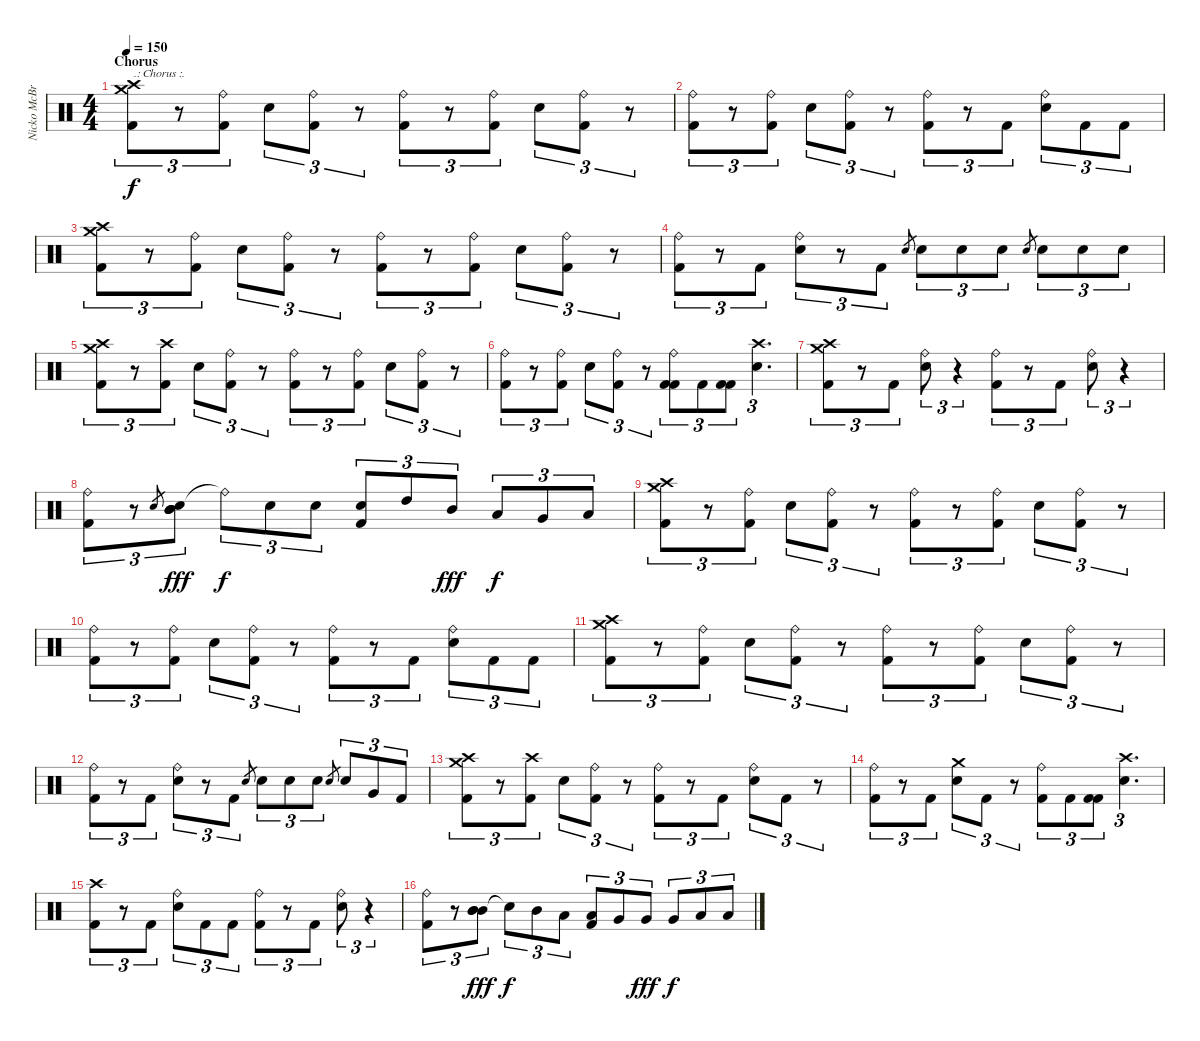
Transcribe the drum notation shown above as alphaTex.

\track ("Nicko McBrain" "Nicko McBr") {instrument percussion}
\staff {score}
\articulation defaults
\ts (4 4)
\section ("" "Chorus")
\tempo 150
\clef neutral
\ks c
("Crash medium (hit)" "Crash high (hit)" "Kick (hit) 2").8{tu (3 2) txt ".: Chorus :." dy f} r.8{tu (3 2)} ("Kick (hit) 2" "Ride (bell)").8{tu (3 2)} "Electric Snare (hit)".8{tu (3 2)} ("Ride (bell)" "Kick (hit) 2").8{tu (3 2)} r.8{tu (3 2)} ("Kick (hit) 2" "Ride (bell)").8{tu (3 2)} r.8{tu (3 2)} ("Ride (bell)" "Kick (hit) 2").8{tu (3 2)} "Electric Snare (hit)".8{tu (3 2)} ("Ride (bell)" "Kick (hit) 2").8{tu (3 2)} r.8{tu (3 2)} |
("Ride (bell)" "Kick (hit) 2").8{tu (3 2)} r.8{tu (3 2)} ("Kick (hit) 2" "Ride (bell)").8{tu (3 2)} "Electric Snare (hit)".8{tu (3 2)} ("Ride (bell)" "Kick (hit) 2").8{tu (3 2)} r.8{tu (3 2)} ("Kick (hit) 2" "Ride (bell)").8{tu (3 2)} r.8{tu (3 2)} "Kick (hit) 2".8{tu (3 2)} ("Ride (bell)" "Electric Snare (hit)").8{tu (3 2)} "Kick (hit) 2".8{tu (3 2)} "Kick (hit) 2".8{tu (3 2)} |
("Crash medium (hit)" "Crash high (hit)" "Kick (hit) 2").8{tu (3 2)} r.8{tu (3 2)} ("Kick (hit) 2" "Ride (bell)").8{tu (3 2)} "Electric Snare (hit)".8{tu (3 2)} ("Ride (bell)" "Kick (hit) 2").8{tu (3 2)} r.8{tu (3 2)} ("Kick (hit) 2" "Ride (bell)").8{tu (3 2)} r.8{tu (3 2)} ("Ride (bell)" "Kick (hit) 2").8{tu (3 2)} "Electric Snare (hit)".8{tu (3 2)} ("Ride (bell)" "Kick (hit) 2").8{tu (3 2)} r.8{tu (3 2)} |
("Ride (bell)" "Kick (hit) 2").8{tu (3 2)} r.8{tu (3 2)} "Kick (hit) 2".8{tu (3 2)} ("Ride (bell)" "Electric Snare (hit)").8{tu (3 2)} r.8{tu (3 2)} "Kick (hit) 2".8{tu (3 2)} "Electric Snare (hit)".8{gr} "Electric Snare (hit)".8{tu (3 2)} "Electric Snare (hit)".8{tu (3 2)} "Electric Snare (hit)".8{tu (3 2)} "Electric Snare (hit)".8{gr} "Electric Snare (hit)".8{tu (3 2)} "Electric Snare (hit)".8{tu (3 2)} "Electric Snare (hit)".8{tu (3 2)} |
("Crash medium (hit)" "Crash high (hit)" "Kick (hit) 2").8{tu (3 2)} r.8{tu (3 2)} ("Kick (hit) 2" "Crash high (hit)").8{tu (3 2)} "Electric Snare (hit)".8{tu (3 2)} ("Ride (bell)" "Kick (hit) 2").8{tu (3 2)} r.8{tu (3 2)} ("Kick (hit) 2" "Ride (bell)").8{tu (3 2)} r.8{tu (3 2)} ("Ride (bell)" "Kick (hit) 2").8{tu (3 2)} "Electric Snare (hit)".8{tu (3 2)} ("Ride (bell)" "Kick (hit) 2").8{tu (3 2)} r.8{tu (3 2)} |
("Ride (bell)" "Kick (hit) 2").8{tu (3 2)} r.8{tu (3 2)} ("Kick (hit) 2" "Ride (bell)").8{tu (3 2)} "Electric Snare (hit)".8{tu (3 2)} ("Ride (bell)" "Kick (hit) 2").8{tu (3 2)} r.8{tu (3 2)} ("Kick (hit) 2" "Ride (bell)" "Kick (hit) 2").8{tu (3 2)} "Kick (hit) 2".8{tu (3 2)} ("Kick (hit) 2" "Kick (hit) 2").8{tu (3 2)} ("Crash high (hit)" "Electric Snare (hit)").4{d tu (3 2)} |
("Crash high (hit)" "Crash medium (hit)" "Kick (hit) 2").8{tu (3 2)} r.8{tu (3 2)} "Kick (hit) 2".8{tu (3 2)} ("Ride (bell)" "Electric Snare (hit)").8{tu (3 2)} r.4{tu (3 2)} ("Kick (hit) 2" "Ride (bell)").8{tu (3 2)} r.8{tu (3 2)} "Kick (hit) 2".8{tu (3 2)} ("Ride (bell)" "Electric Snare (hit)").8{tu (3 2)} r.4{tu (3 2)} |
("Ride (bell)" "Kick (hit) 2").8{tu (3 2)} r.8{tu (3 2)} "Electric Snare (hit)".8{gr} ("Electric Snare (hit)" "Mid Tom (hit)" "Mid Tom (hit)" "Mid Tom (hit)").8{tu (3 2) dy fff} "Ride (bell)"{t}.8{tu (3 2) dy f} "Electric Snare (hit)".8{tu (3 2)} "Electric Snare (hit)".8{tu (3 2)} ("Kick (hit) 2" "Electric Snare (hit)").8{tu (3 2)} "High Tom (hit)".8{tu (3 2)} "Mid Tom (hit)".8{tu (3 2) dy fff} "Low Tom (hit)".8{tu (3 2) dy f} "Very Low Tom (hit)".8{tu (3 2)} "Low Floor Tom (hit)".8{tu (3 2)} |
("Crash medium (hit)" "Crash high (hit)" "Kick (hit) 2").8{tu (3 2)} r.8{tu (3 2)} ("Kick (hit) 2" "Ride (bell)").8{tu (3 2)} "Electric Snare (hit)".8{tu (3 2)} ("Ride (bell)" "Kick (hit) 2").8{tu (3 2)} r.8{tu (3 2)} ("Kick (hit) 2" "Ride (bell)").8{tu (3 2)} r.8{tu (3 2)} ("Ride (bell)" "Kick (hit) 2").8{tu (3 2)} "Electric Snare (hit)".8{tu (3 2)} ("Ride (bell)" "Kick (hit) 2").8{tu (3 2)} r.8{tu (3 2)} |
("Ride (bell)" "Kick (hit) 2").8{tu (3 2)} r.8{tu (3 2)} ("Kick (hit) 2" "Ride (bell)").8{tu (3 2)} "Electric Snare (hit)".8{tu (3 2)} ("Ride (bell)" "Kick (hit) 2").8{tu (3 2)} r.8{tu (3 2)} ("Kick (hit) 2" "Ride (bell)").8{tu (3 2)} r.8{tu (3 2)} "Kick (hit) 2".8{tu (3 2)} ("Ride (bell)" "Electric Snare (hit)").8{tu (3 2)} "Kick (hit) 2".8{tu (3 2)} "Kick (hit) 2".8{tu (3 2)} |
("Crash medium (hit)" "Crash high (hit)" "Kick (hit) 2").8{tu (3 2)} r.8{tu (3 2)} ("Kick (hit) 2" "Ride (bell)").8{tu (3 2)} "Electric Snare (hit)".8{tu (3 2)} ("Ride (bell)" "Kick (hit) 2").8{tu (3 2)} r.8{tu (3 2)} ("Kick (hit) 2" "Ride (bell)").8{tu (3 2)} r.8{tu (3 2)} ("Ride (bell)" "Kick (hit) 2").8{tu (3 2)} "Electric Snare (hit)".8{tu (3 2)} ("Ride (bell)" "Kick (hit) 2").8{tu (3 2)} r.8{tu (3 2)} |
("Ride (bell)" "Kick (hit) 2").8{tu (3 2)} r.8{tu (3 2)} "Kick (hit) 2".8{tu (3 2)} ("Ride (bell)" "Electric Snare (hit)").8{tu (3 2)} r.8{tu (3 2)} "Kick (hit) 2".8{tu (3 2)} "Electric Snare (hit)".8{gr} "Electric Snare (hit)".8{tu (3 2)} "Electric Snare (hit)".8{tu (3 2)} "Electric Snare (hit)".8{tu (3 2)} "Electric Snare (hit)".8{gr} "Electric Snare (hit)".8{tu (3 2)} "Very Low Tom (hit)".8{tu (3 2)} "Kick (hit) 2".8{tu (3 2)} |
("Crash medium (hit)" "Crash high (hit)" "Kick (hit) 2").8{tu (3 2)} r.8{tu (3 2)} ("Kick (hit) 2" "Crash high (hit)").8{tu (3 2)} "Electric Snare (hit)".8{tu (3 2)} ("Ride (bell)" "Kick (hit) 2").8{tu (3 2)} r.8{tu (3 2)} ("Kick (hit) 2" "Ride (bell)").8{tu (3 2)} r.8{tu (3 2)} "Kick (hit) 2".8{tu (3 2)} ("Ride (bell)" "Electric Snare (hit)").8{tu (3 2)} "Kick (hit) 2".8{tu (3 2)} r.8{tu (3 2)} |
("Ride (bell)" "Kick (hit) 2").8{tu (3 2)} r.8{tu (3 2)} "Kick (hit) 2".8{tu (3 2)} ("Crash medium (hit)" "Electric Snare (hit)").8{tu (3 2)} "Kick (hit) 2".8{tu (3 2)} r.8{tu (3 2)} ("Ride (bell)" "Kick (hit) 2").8{tu (3 2)} "Kick (hit) 2".8{tu (3 2)} ("Kick (hit) 2" "Kick (hit) 2").8{tu (3 2)} ("Crash high (hit)" "Electric Snare (hit)").4{d tu (3 2)} |
("Crash high (hit)" "Kick (hit) 2").8{tu (3 2)} r.8{tu (3 2)} "Kick (hit) 2".8{tu (3 2)} ("Ride (bell)" "Electric Snare (hit)").8{tu (3 2)} "Kick (hit) 2".8{tu (3 2)} "Kick (hit) 2".8{tu (3 2)} ("Kick (hit) 2" "Ride (bell)").8{tu (3 2)} r.8{tu (3 2)} "Kick (hit) 2".8{tu (3 2)} ("Ride (bell)" "Electric Snare (hit)").8{tu (3 2)} r.4{tu (3 2)} |
("Ride (bell)" "Kick (hit) 2").8{tu (3 2)} r.8{tu (3 2)} ("Mid Tom (hit)" "Mid Tom (hit)" "Mid Tom (hit)").8{tu (3 2) dy fff} "Snare (hit)"{t}.8{tu (3 2) dy f} "Mid Tom (hit)".8{tu (3 2)} "Low Tom (hit)".8{tu (3 2)} ("Kick (hit) 2" "Low Tom (hit)").8{tu (3 2)} "Very Low Tom (hit)".8{tu (3 2)} "Very Low Tom (hit)".8{tu (3 2) dy fff} "Very Low Tom (hit)".8{tu (3 2) dy f} "Low Floor Tom (hit)".8{tu (3 2)} "Low Floor Tom (hit)".8{tu (3 2)}
